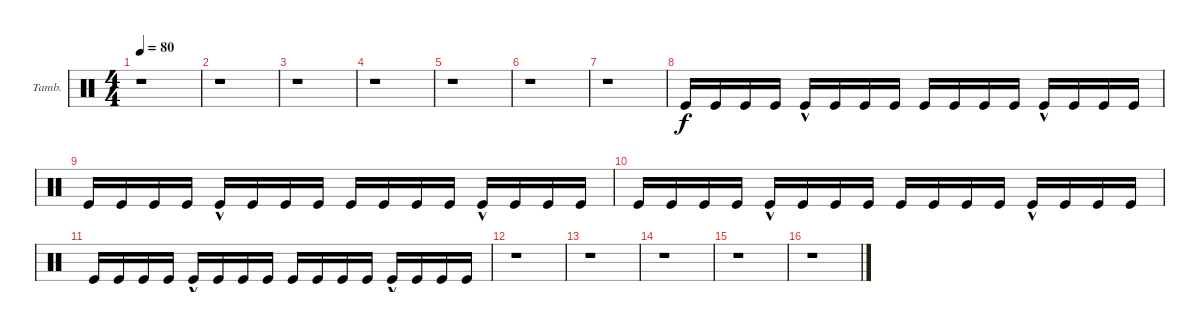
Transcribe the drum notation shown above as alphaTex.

\bracketExtendMode groupsimilarinstruments
\firstSystemTrackNameOrientation horizontal
\otherSystemsTrackNameOrientation horizontal
\track ("Tambourine" "Tamb.") {instrument percussion}
\staff {score}
\articulation defaults
\ts (4 4)
\tempo 80
\clef neutral
\ks c
r.1{dy f} |
r.1 |
r.1 |
r.1 |
r.1 |
r.1 |
r.1 |
"Kick (hit)".16 "Kick (hit)".16 "Kick (hit)".16 "Kick (hit)".16 "Kick (hit)"{hac}.16 "Kick (hit)".16 "Kick (hit)".16 "Kick (hit)".16 "Kick (hit)".16 "Kick (hit)".16 "Kick (hit)".16 "Kick (hit)".16 "Kick (hit)"{hac}.16 "Kick (hit)".16 "Kick (hit)".16 "Kick (hit)".16 |
"Kick (hit)".16 "Kick (hit)".16 "Kick (hit)".16 "Kick (hit)".16 "Kick (hit)"{hac}.16 "Kick (hit)".16 "Kick (hit)".16 "Kick (hit)".16 "Kick (hit)".16 "Kick (hit)".16 "Kick (hit)".16 "Kick (hit)".16 "Kick (hit)"{hac}.16 "Kick (hit)".16 "Kick (hit)".16 "Kick (hit)".16 |
"Kick (hit)".16 "Kick (hit)".16 "Kick (hit)".16 "Kick (hit)".16 "Kick (hit)"{hac}.16 "Kick (hit)".16 "Kick (hit)".16 "Kick (hit)".16 "Kick (hit)".16 "Kick (hit)".16 "Kick (hit)".16 "Kick (hit)".16 "Kick (hit)"{hac}.16 "Kick (hit)".16 "Kick (hit)".16 "Kick (hit)".16 |
"Kick (hit)".16 "Kick (hit)".16 "Kick (hit)".16 "Kick (hit)".16 "Kick (hit)"{hac}.16 "Kick (hit)".16 "Kick (hit)".16 "Kick (hit)".16 "Kick (hit)".16 "Kick (hit)".16 "Kick (hit)".16 "Kick (hit)".16 "Kick (hit)"{hac}.16 "Kick (hit)".16 "Kick (hit)".16 "Kick (hit)".16 |
r.1 |
r.1 |
r.1 |
r.1 |
r.1
